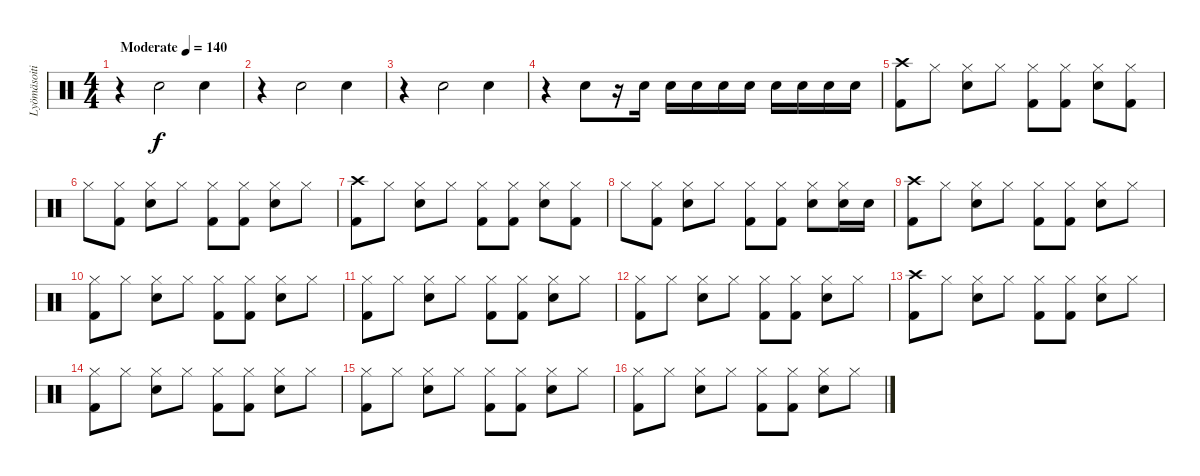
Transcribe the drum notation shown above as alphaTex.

\track ("Lyömäsoitin" "Lyömäsoiti") {instrument percussion}
\staff {score}
\articulation defaults
\ts (4 4)
\tempo (140 "Moderate")
\clef neutral
\ks c
r.4{dy f} "Electric Snare (hit)".2 "Electric Snare (hit)".4 |
r.4 "Electric Snare (hit)".2 "Electric Snare (hit)".4 |
r.4 "Electric Snare (hit)".2 "Electric Snare (hit)".4 |
r.4 "Electric Snare (hit)".8 r.16 "Electric Snare (hit)".16 "Electric Snare (hit)".16 "Electric Snare (hit)".16 "Electric Snare (hit)".16 "Electric Snare (hit)".16 "Electric Snare (hit)".16 "Electric Snare (hit)".16 "Electric Snare (hit)".16 "Electric Snare (hit)".16 |
("Crash high (hit)" "Kick (hit) 2").8 "Hi-Hat (closed)".8 ("Hi-Hat (closed)" "Electric Snare (hit)").8 "Hi-Hat (closed)".8 ("Hi-Hat (closed)" "Kick (hit) 2").8 ("Hi-Hat (closed)" "Kick (hit) 2").8 ("Hi-Hat (closed)" "Electric Snare (hit)").8 ("Hi-Hat (closed)" "Kick (hit) 2").8 |
"Hi-Hat (closed)".8 ("Hi-Hat (closed)" "Kick (hit) 2").8 ("Hi-Hat (closed)" "Electric Snare (hit)").8 "Hi-Hat (closed)".8 ("Hi-Hat (closed)" "Kick (hit) 2").8 ("Hi-Hat (closed)" "Kick (hit) 2").8 ("Hi-Hat (closed)" "Electric Snare (hit)").8 "Hi-Hat (closed)".8 |
("Crash high (hit)" "Kick (hit) 2").8 "Hi-Hat (closed)".8 ("Hi-Hat (closed)" "Electric Snare (hit)").8 "Hi-Hat (closed)".8 ("Hi-Hat (closed)" "Kick (hit) 2").8 ("Hi-Hat (closed)" "Kick (hit) 2").8 ("Hi-Hat (closed)" "Electric Snare (hit)").8 ("Hi-Hat (closed)" "Kick (hit) 2").8 |
"Hi-Hat (closed)".8 ("Hi-Hat (closed)" "Kick (hit) 2").8 ("Hi-Hat (closed)" "Electric Snare (hit)").8 "Hi-Hat (closed)".8 ("Hi-Hat (closed)" "Kick (hit) 2").8 ("Hi-Hat (closed)" "Kick (hit) 2").8 ("Hi-Hat (closed)" "Electric Snare (hit)").8 ("Hi-Hat (closed)" "Electric Snare (hit)").16 "Electric Snare (hit)".16 |
("Crash high (hit)" "Kick (hit) 2").8 "Hi-Hat (closed)".8 ("Hi-Hat (closed)" "Electric Snare (hit)").8 "Hi-Hat (closed)".8 ("Hi-Hat (closed)" "Kick (hit) 2").8 ("Hi-Hat (closed)" "Kick (hit) 2").8 ("Hi-Hat (closed)" "Electric Snare (hit)").8 "Hi-Hat (closed)".8 |
("Hi-Hat (closed)" "Kick (hit) 2").8 "Hi-Hat (closed)".8 ("Hi-Hat (closed)" "Electric Snare (hit)").8 "Hi-Hat (closed)".8 ("Hi-Hat (closed)" "Kick (hit) 2").8 ("Hi-Hat (closed)" "Kick (hit) 2").8 ("Hi-Hat (closed)" "Electric Snare (hit)").8 "Hi-Hat (closed)".8 |
("Hi-Hat (closed)" "Kick (hit) 2").8 "Hi-Hat (closed)".8 ("Hi-Hat (closed)" "Electric Snare (hit)").8 "Hi-Hat (closed)".8 ("Hi-Hat (closed)" "Kick (hit) 2").8 ("Hi-Hat (closed)" "Kick (hit) 2").8 ("Hi-Hat (closed)" "Electric Snare (hit)").8 "Hi-Hat (closed)".8 |
("Hi-Hat (closed)" "Kick (hit) 2").8 "Hi-Hat (closed)".8 ("Hi-Hat (closed)" "Electric Snare (hit)").8 "Hi-Hat (closed)".8 ("Hi-Hat (closed)" "Kick (hit) 2").8 ("Hi-Hat (closed)" "Kick (hit) 2").8 ("Hi-Hat (closed)" "Electric Snare (hit)").8 "Hi-Hat (closed)".8 |
("Crash high (hit)" "Kick (hit) 2").8 "Hi-Hat (closed)".8 ("Hi-Hat (closed)" "Electric Snare (hit)").8 "Hi-Hat (closed)".8 ("Hi-Hat (closed)" "Kick (hit) 2").8 ("Hi-Hat (closed)" "Kick (hit) 2").8 ("Hi-Hat (closed)" "Electric Snare (hit)").8 "Hi-Hat (closed)".8 |
("Hi-Hat (closed)" "Kick (hit) 2").8 "Hi-Hat (closed)".8 ("Hi-Hat (closed)" "Electric Snare (hit)").8 "Hi-Hat (closed)".8 ("Hi-Hat (closed)" "Kick (hit) 2").8 ("Hi-Hat (closed)" "Kick (hit) 2").8 ("Hi-Hat (closed)" "Electric Snare (hit)").8 "Hi-Hat (closed)".8 |
("Hi-Hat (closed)" "Kick (hit) 2").8 "Hi-Hat (closed)".8 ("Hi-Hat (closed)" "Electric Snare (hit)").8 "Hi-Hat (closed)".8 ("Hi-Hat (closed)" "Kick (hit) 2").8 ("Hi-Hat (closed)" "Kick (hit) 2").8 ("Hi-Hat (closed)" "Electric Snare (hit)").8 "Hi-Hat (closed)".8 |
("Hi-Hat (closed)" "Kick (hit) 2").8 "Hi-Hat (closed)".8 ("Hi-Hat (closed)" "Electric Snare (hit)").8 "Hi-Hat (closed)".8 ("Hi-Hat (closed)" "Kick (hit) 2").8 ("Hi-Hat (closed)" "Kick (hit) 2").8 ("Hi-Hat (closed)" "Electric Snare (hit)").8 "Hi-Hat (closed)".8
